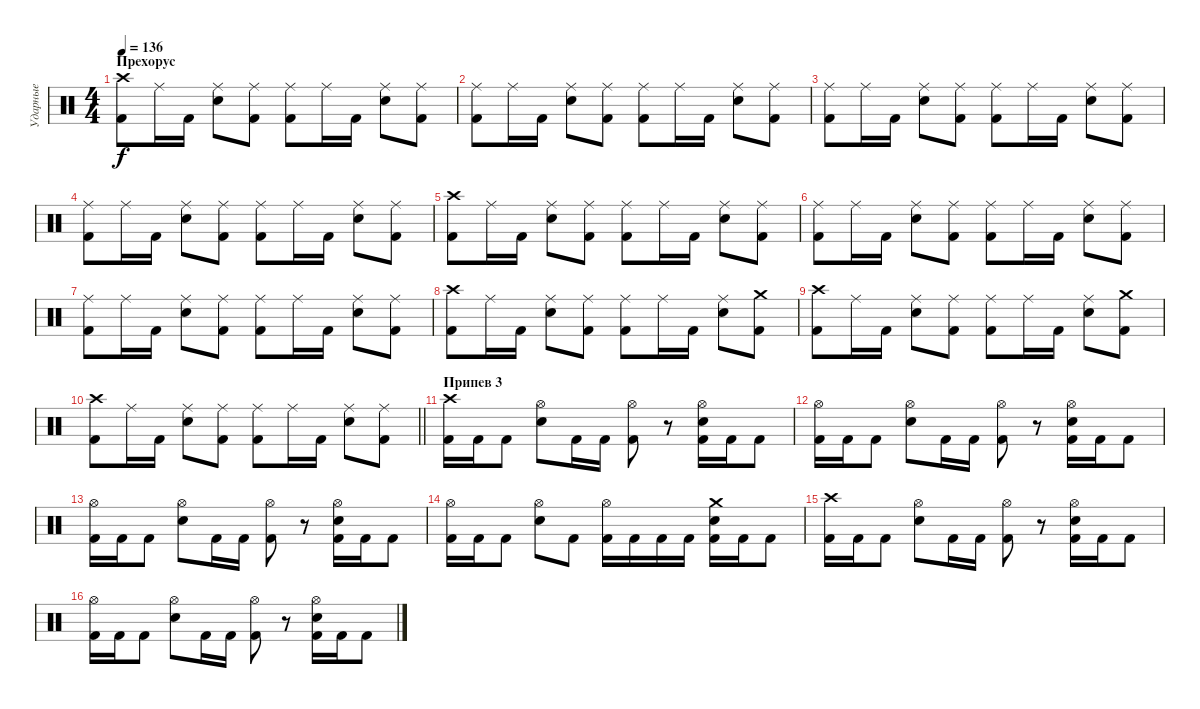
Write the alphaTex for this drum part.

\track ("Ударные" "Ударные") {instrument percussion}
\staff {score}
\articulation defaults
\ts (4 4)
\section ("" "Прехорус")
\tempo 136
\clef neutral
\ks c
("Crash high (hit)" "Kick (hit) 2").8{dy f} "Ride (middle)".16 "Kick (hit) 2".16 ("Ride (middle)" "Snare (hit) 2").8 ("Ride (middle)" "Kick (hit) 2").8 ("Ride (middle)" "Kick (hit) 2").8 "Ride (middle)".16 "Kick (hit) 2".16 ("Ride (middle)" "Snare (hit) 2").8 ("Ride (middle)" "Kick (hit) 2").8 |
("Ride (middle)" "Kick (hit) 2").8 "Ride (middle)".16 "Kick (hit) 2".16 ("Ride (middle)" "Snare (hit) 2").8 ("Ride (middle)" "Kick (hit) 2").8 ("Ride (middle)" "Kick (hit) 2").8 "Ride (middle)".16 "Kick (hit) 2".16 ("Ride (middle)" "Snare (hit) 2").8 ("Ride (middle)" "Kick (hit) 2").8 |
("Ride (middle)" "Kick (hit) 2").8 "Ride (middle)".16 "Kick (hit) 2".16 ("Ride (middle)" "Snare (hit) 2").8 ("Ride (middle)" "Kick (hit) 2").8 ("Ride (middle)" "Kick (hit) 2").8 "Ride (middle)".16 "Kick (hit) 2".16 ("Ride (middle)" "Snare (hit) 2").8 ("Ride (middle)" "Kick (hit) 2").8 |
("Ride (middle)" "Kick (hit) 2").8 "Ride (middle)".16 "Kick (hit) 2".16 ("Ride (middle)" "Snare (hit) 2").8 ("Ride (middle)" "Kick (hit) 2").8 ("Ride (middle)" "Kick (hit) 2").8 "Ride (middle)".16 "Kick (hit) 2".16 ("Ride (middle)" "Snare (hit) 2").8 ("Ride (middle)" "Kick (hit) 2").8 |
("Crash high (hit)" "Kick (hit) 2").8 "Ride (middle)".16 "Kick (hit) 2".16 ("Ride (middle)" "Snare (hit) 2").8 ("Ride (middle)" "Kick (hit) 2").8 ("Ride (middle)" "Kick (hit) 2").8 "Ride (middle)".16 "Kick (hit) 2".16 ("Ride (middle)" "Snare (hit) 2").8 ("Ride (middle)" "Kick (hit) 2").8 |
("Ride (middle)" "Kick (hit) 2").8 "Ride (middle)".16 "Kick (hit) 2".16 ("Ride (middle)" "Snare (hit) 2").8 ("Ride (middle)" "Kick (hit) 2").8 ("Ride (middle)" "Kick (hit) 2").8 "Ride (middle)".16 "Kick (hit) 2".16 ("Ride (middle)" "Snare (hit) 2").8 ("Ride (middle)" "Kick (hit) 2").8 |
("Ride (middle)" "Kick (hit) 2").8 "Ride (middle)".16 "Kick (hit) 2".16 ("Ride (middle)" "Snare (hit) 2").8 ("Ride (middle)" "Kick (hit) 2").8 ("Ride (middle)" "Kick (hit) 2").8 "Ride (middle)".16 "Kick (hit) 2".16 ("Ride (middle)" "Snare (hit) 2").8 ("Ride (middle)" "Kick (hit) 2").8 |
("Crash high (hit)" "Kick (hit) 2").8 "Ride (middle)".16 "Kick (hit) 2".16 ("Ride (middle)" "Snare (hit) 2").8 ("Ride (middle)" "Kick (hit) 2").8 ("Ride (middle)" "Kick (hit) 2").8 "Ride (middle)".16 "Kick (hit) 2".16 ("Ride (middle)" "Snare (hit) 2").8 ("Crash medium (hit)" "Kick (hit) 2").8 |
("Crash high (hit)" "Kick (hit) 2").8 "Ride (middle)".16 "Kick (hit) 2".16 ("Ride (middle)" "Snare (hit) 2").8 ("Ride (middle)" "Kick (hit) 2").8 ("Ride (middle)" "Kick (hit) 2").8 "Ride (middle)".16 "Kick (hit) 2".16 ("Ride (middle)" "Snare (hit) 2").8 ("Crash medium (hit)" "Kick (hit) 2").8 |
\barLineRight lightlight
("Crash high (hit)" "Kick (hit) 2").8 "Ride (middle)".16 "Kick (hit) 2".16 ("Ride (middle)" "Snare (hit) 2").8 ("Ride (middle)" "Kick (hit) 2").8 ("Ride (middle)" "Kick (hit) 2").8 "Ride (middle)".16 "Kick (hit) 2".16 ("Ride (middle)" "Snare (hit) 2").8 ("Ride (middle)" "Kick (hit) 2").8 |
\section ("" "Припев 3")
("Crash high (hit)" "Kick (hit) 2").16 "Kick (hit) 2".16 "Kick (hit) 2".8 ("Hi-Hat (open)" "Snare (hit) 2").8 "Kick (hit) 2".16 "Kick (hit) 2".16 ("Hi-Hat (open)" "Kick (hit) 2").8 r.8 ("Hi-Hat (open)" "Snare (hit) 2" "Kick (hit) 2").16 "Kick (hit) 2".16 "Kick (hit) 2".8 |
("Hi-Hat (open)" "Kick (hit) 2").16 "Kick (hit) 2".16 "Kick (hit) 2".8 ("Hi-Hat (open)" "Snare (hit) 2").8 "Kick (hit) 2".16 "Kick (hit) 2".16 ("Hi-Hat (open)" "Kick (hit) 2").8 r.8 ("Hi-Hat (open)" "Snare (hit) 2" "Kick (hit) 2").16 "Kick (hit) 2".16 "Kick (hit) 2".8 |
("Hi-Hat (open)" "Kick (hit) 2").16 "Kick (hit) 2".16 "Kick (hit) 2".8 ("Hi-Hat (open)" "Snare (hit) 2").8 "Kick (hit) 2".16 "Kick (hit) 2".16 ("Hi-Hat (open)" "Kick (hit) 2").8 r.8 ("Hi-Hat (open)" "Snare (hit) 2" "Kick (hit) 2").16 "Kick (hit) 2".16 "Kick (hit) 2".8 |
("Hi-Hat (open)" "Kick (hit) 2").16 "Kick (hit) 2".16 "Kick (hit) 2".8 ("Hi-Hat (open)" "Snare (hit) 2").8 "Kick (hit) 2".8 ("Hi-Hat (open)" "Kick (hit) 2").16 "Kick (hit) 2".16 "Kick (hit) 2".16 "Kick (hit) 2".16 ("Crash medium (hit)" "Snare (hit) 2" "Kick (hit) 2").16 "Kick (hit) 2".16 "Kick (hit) 2".8 |
("Crash high (hit)" "Kick (hit) 2").16 "Kick (hit) 2".16 "Kick (hit) 2".8 ("Hi-Hat (open)" "Snare (hit) 2").8 "Kick (hit) 2".16 "Kick (hit) 2".16 ("Hi-Hat (open)" "Kick (hit) 2").8 r.8 ("Hi-Hat (open)" "Snare (hit) 2" "Kick (hit) 2").16 "Kick (hit) 2".16 "Kick (hit) 2".8 |
("Hi-Hat (open)" "Kick (hit) 2").16 "Kick (hit) 2".16 "Kick (hit) 2".8 ("Hi-Hat (open)" "Snare (hit) 2").8 "Kick (hit) 2".16 "Kick (hit) 2".16 ("Hi-Hat (open)" "Kick (hit) 2").8 r.8 ("Hi-Hat (open)" "Snare (hit) 2" "Kick (hit) 2").16 "Kick (hit) 2".16 "Kick (hit) 2".8
